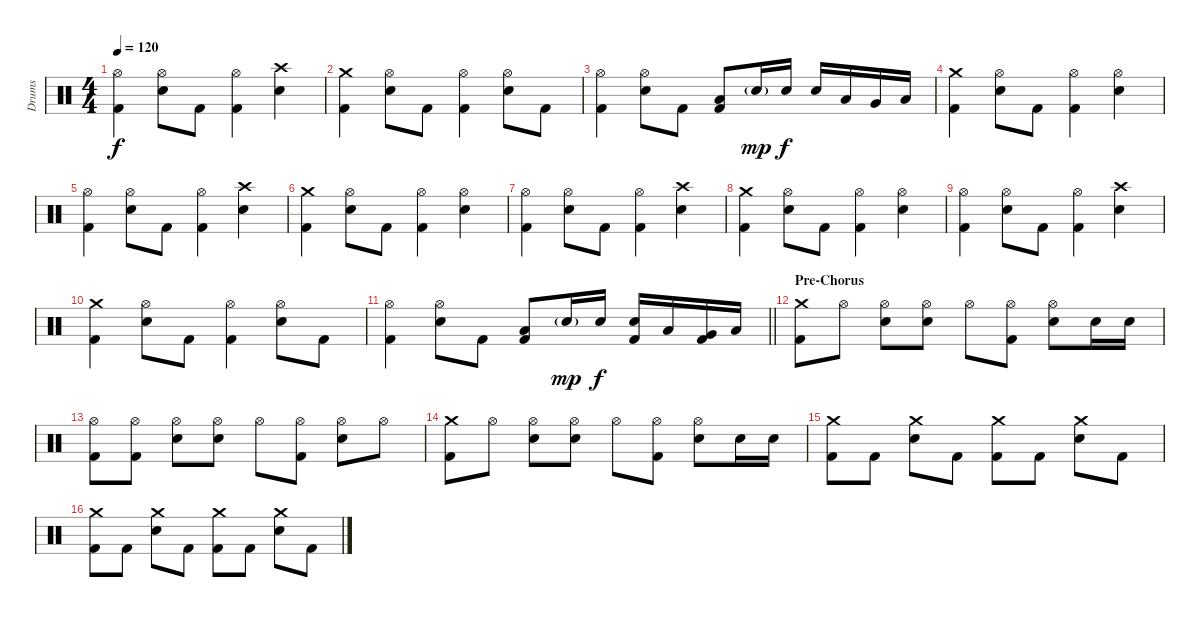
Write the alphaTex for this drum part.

\track ("Drums" "Drums") {instrument percussion}
\staff {score}
\articulation defaults
\ts (4 4)
\tempo 120
\clef neutral
\ks c
("Hi-Hat (open)" "Kick (hit) 2").4{dy f} ("Hi-Hat (open)" "Electric Snare (hit)").8 "Kick (hit) 2".8 ("Hi-Hat (open)" "Kick (hit) 2").4 ("Crash high (hit)" "Electric Snare (hit)").4 |
("Crash medium (hit)" "Kick (hit) 2").4 ("Hi-Hat (open)" "Electric Snare (hit)").8 "Kick (hit) 2".8 ("Hi-Hat (open)" "Kick (hit) 2").4 ("Hi-Hat (open)" "Electric Snare (hit)").8 "Kick (hit) 2".8 |
("Hi-Hat (open)" "Kick (hit) 2").4 ("Hi-Hat (open)" "Electric Snare (hit)").8 "Kick (hit) 2".8 ("Low Tom (hit)" "Kick (hit) 2").8 "Electric Snare (hit)"{g}.16{dy mp} "Electric Snare (hit)".16{dy f} "Electric Snare (hit)".16 "Low Tom (hit)".16 "Very Low Tom (hit)".16 "Low Floor Tom (hit)".16 |
("Crash medium (hit)" "Kick (hit) 2").4 ("Hi-Hat (open)" "Electric Snare (hit)").8 "Kick (hit) 2".8 ("Hi-Hat (open)" "Kick (hit) 2").4 ("Hi-Hat (open)" "Electric Snare (hit)").4 |
("Hi-Hat (open)" "Kick (hit) 2").4 ("Hi-Hat (open)" "Electric Snare (hit)").8 "Kick (hit) 2".8 ("Hi-Hat (open)" "Kick (hit) 2").4 ("Crash high (hit)" "Electric Snare (hit)").4 |
("Crash medium (hit)" "Kick (hit) 2").4 ("Hi-Hat (open)" "Electric Snare (hit)").8 "Kick (hit) 2".8 ("Hi-Hat (open)" "Kick (hit) 2").4 ("Hi-Hat (open)" "Electric Snare (hit)").4 |
("Hi-Hat (open)" "Kick (hit) 2").4 ("Hi-Hat (open)" "Electric Snare (hit)").8 "Kick (hit) 2".8 ("Hi-Hat (open)" "Kick (hit) 2").4 ("Crash high (hit)" "Electric Snare (hit)").4 |
("Crash medium (hit)" "Kick (hit) 2").4 ("Hi-Hat (open)" "Electric Snare (hit)").8 "Kick (hit) 2".8 ("Hi-Hat (open)" "Kick (hit) 2").4 ("Hi-Hat (open)" "Electric Snare (hit)").4 |
("Hi-Hat (open)" "Kick (hit) 2").4 ("Hi-Hat (open)" "Electric Snare (hit)").8 "Kick (hit) 2".8 ("Hi-Hat (open)" "Kick (hit) 2").4 ("Crash high (hit)" "Electric Snare (hit)").4 |
("Crash medium (hit)" "Kick (hit) 2").4 ("Hi-Hat (open)" "Electric Snare (hit)").8 "Kick (hit) 2".8 ("Hi-Hat (open)" "Kick (hit) 2").4 ("Hi-Hat (open)" "Electric Snare (hit)").8 "Kick (hit) 2".8 |
\barLineRight lightlight
("Hi-Hat (open)" "Kick (hit) 2").4 ("Hi-Hat (open)" "Electric Snare (hit)").8 "Kick (hit) 2".8 ("Low Tom (hit)" "Kick (hit) 2").8 "Electric Snare (hit)"{g}.16{dy mp} "Electric Snare (hit)".16{dy f} ("Electric Snare (hit)" "Kick (hit) 2").16 "Low Tom (hit)".16 ("Very Low Tom (hit)" "Kick (hit) 2").16 "Low Floor Tom (hit)".16 |
\section ("" "Pre-Chorus")
("Crash medium (hit)" "Kick (hit) 2").8 "Hi-Hat (open)".8 ("Hi-Hat (open)" "Electric Snare (hit)").8 ("Hi-Hat (open)" "Electric Snare (hit)").8 "Hi-Hat (open)".8 ("Hi-Hat (open)" "Kick (hit) 2").8 ("Hi-Hat (open)" "Electric Snare (hit)").8 "Electric Snare (hit)".16 "Electric Snare (hit)".16 |
("Hi-Hat (open)" "Kick (hit) 2").8 ("Hi-Hat (open)" "Kick (hit) 2").8 ("Hi-Hat (open)" "Electric Snare (hit)").8 ("Hi-Hat (open)" "Electric Snare (hit)").8 "Hi-Hat (open)".8 ("Hi-Hat (open)" "Kick (hit) 2").8 ("Hi-Hat (open)" "Electric Snare (hit)").8 "Hi-Hat (open)".8 |
("Crash medium (hit)" "Kick (hit) 2").8 "Hi-Hat (open)".8 ("Hi-Hat (open)" "Electric Snare (hit)").8 ("Hi-Hat (open)" "Electric Snare (hit)").8 "Hi-Hat (open)".8 ("Hi-Hat (open)" "Kick (hit) 2").8 ("Hi-Hat (open)" "Electric Snare (hit)").8 "Electric Snare (hit)".16 "Electric Snare (hit)".16 |
("Crash medium (hit)" "Kick (hit) 2").8 "Kick (hit) 2".8 ("Crash medium (hit)" "Electric Snare (hit)").8 "Kick (hit) 2".8 ("Crash medium (hit)" "Kick (hit) 2").8 "Kick (hit) 2".8 ("Crash medium (hit)" "Electric Snare (hit)").8 "Kick (hit) 2".8 |
("Crash medium (hit)" "Kick (hit) 2").8 "Kick (hit) 2".8 ("Crash medium (hit)" "Electric Snare (hit)").8 "Kick (hit) 2".8 ("Crash medium (hit)" "Kick (hit) 2").8 "Kick (hit) 2".8 ("Crash medium (hit)" "Electric Snare (hit)").8 "Kick (hit) 2".8
